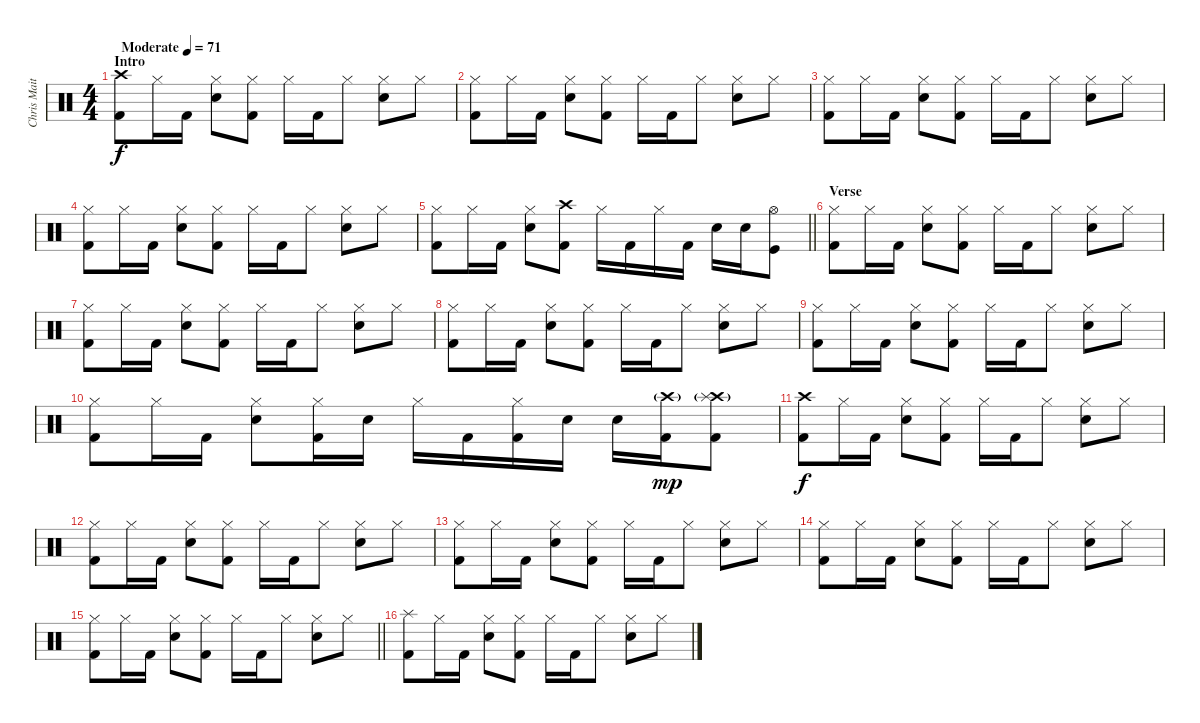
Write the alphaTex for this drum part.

\track ("Chris Maitland" "Chris Mait") {instrument percussion}
\staff {score}
\articulation defaults
\ts (4 4)
\section ("" "Intro")
\tempo (71 "Moderate")
\clef neutral
\ks c
("Crash high (hit)" "Kick (hit) 2").8{dy f} "Hi-Hat (closed)".16 "Kick (hit) 2".16 ("Hi-Hat (closed)" "Snare (hit) 2").8 ("Hi-Hat (closed)" "Kick (hit) 2").8 "Hi-Hat (closed)".16 "Kick (hit) 2".16 "Hi-Hat (closed)".8 ("Hi-Hat (closed)" "Snare (hit) 2").8 "Hi-Hat (closed)".8 |
("Hi-Hat (closed)" "Kick (hit) 2").8 "Hi-Hat (closed)".16 "Kick (hit) 2".16 ("Hi-Hat (closed)" "Snare (hit) 2").8 ("Hi-Hat (closed)" "Kick (hit) 2").8 "Hi-Hat (closed)".16 "Kick (hit) 2".16 "Hi-Hat (closed)".8 ("Hi-Hat (closed)" "Snare (hit) 2").8 "Hi-Hat (closed)".8 |
("Hi-Hat (closed)" "Kick (hit) 2").8 "Hi-Hat (closed)".16 "Kick (hit) 2".16 ("Hi-Hat (closed)" "Snare (hit) 2").8 ("Hi-Hat (closed)" "Kick (hit) 2").8 "Hi-Hat (closed)".16 "Kick (hit) 2".16 "Hi-Hat (closed)".8 ("Hi-Hat (closed)" "Snare (hit) 2").8 "Hi-Hat (closed)".8 |
("Hi-Hat (closed)" "Kick (hit) 2").8 "Hi-Hat (closed)".16 "Kick (hit) 2".16 ("Hi-Hat (closed)" "Snare (hit) 2").8 ("Hi-Hat (closed)" "Kick (hit) 2").8 "Hi-Hat (closed)".16 "Kick (hit) 2".16 "Hi-Hat (closed)".8 ("Hi-Hat (closed)" "Snare (hit) 2").8 "Hi-Hat (closed)".8 |
\barLineRight lightlight
("Hi-Hat (closed)" "Kick (hit) 2").8 "Hi-Hat (closed)".16 "Kick (hit) 2".16 ("Hi-Hat (closed)" "Snare (hit) 2").8 ("Crash high (hit)" "Kick (hit) 2").8 "Hi-Hat (closed)".16 "Kick (hit) 2".16 "Hi-Hat (closed)".16 "Kick (hit) 2".16 "Snare (hit) 2".16 "Snare (hit) 2".16 ("Hi-Hat (open)" "Kick (hit)").8 |
\section ("" "Verse")
("Hi-Hat (closed)" "Kick (hit) 2").8 "Hi-Hat (closed)".16 "Kick (hit) 2".16 ("Hi-Hat (closed)" "Snare (hit) 2").8 ("Hi-Hat (closed)" "Kick (hit) 2").8 "Hi-Hat (closed)".16 "Kick (hit) 2".16 "Hi-Hat (closed)".8 ("Hi-Hat (closed)" "Snare (hit) 2").8 "Hi-Hat (closed)".8 |
("Hi-Hat (closed)" "Kick (hit) 2").8 "Hi-Hat (closed)".16 "Kick (hit) 2".16 ("Hi-Hat (closed)" "Snare (hit) 2").8 ("Hi-Hat (closed)" "Kick (hit) 2").8 "Hi-Hat (closed)".16 "Kick (hit) 2".16 "Hi-Hat (closed)".8 ("Hi-Hat (closed)" "Snare (hit) 2").8 "Hi-Hat (closed)".8 |
("Hi-Hat (closed)" "Kick (hit) 2").8 "Hi-Hat (closed)".16 "Kick (hit) 2".16 ("Hi-Hat (closed)" "Snare (hit) 2").8 ("Hi-Hat (closed)" "Kick (hit) 2").8 "Hi-Hat (closed)".16 "Kick (hit) 2".16 "Hi-Hat (closed)".8 ("Hi-Hat (closed)" "Snare (hit) 2").8 "Hi-Hat (closed)".8 |
("Hi-Hat (closed)" "Kick (hit) 2").8 "Hi-Hat (closed)".16 "Kick (hit) 2".16 ("Hi-Hat (closed)" "Snare (hit) 2").8 ("Hi-Hat (closed)" "Kick (hit) 2").8 "Hi-Hat (closed)".16 "Kick (hit) 2".16 "Hi-Hat (closed)".8 ("Hi-Hat (closed)" "Snare (hit) 2").8 "Hi-Hat (closed)".8 |
("Hi-Hat (closed)" "Kick (hit) 2").8 "Hi-Hat (closed)".16 "Kick (hit) 2".16 ("Hi-Hat (closed)" "Snare (hit) 2").8 ("Hi-Hat (closed)" "Kick (hit) 2").16 "Snare (hit) 2".16 "Hi-Hat (closed)".16 "Kick (hit) 2".16 ("Hi-Hat (closed)" "Kick (hit) 2").16 "Snare (hit) 2".16 "Snare (hit) 2".16 ("Crash high (hit)"{g} "Kick (hit) 2").16{dy mp} ("Crash high (hit)"{g} "Splash (hit)" "Kick (hit) 2").8 |
("Crash high (hit)" "Kick (hit) 2").8{dy f} "Hi-Hat (closed)".16 "Kick (hit) 2".16 ("Hi-Hat (closed)" "Snare (hit) 2").8 ("Hi-Hat (closed)" "Kick (hit) 2").8 "Hi-Hat (closed)".16 "Kick (hit) 2".16 "Hi-Hat (closed)".8 ("Hi-Hat (closed)" "Snare (hit) 2").8 "Hi-Hat (closed)".8 |
("Hi-Hat (closed)" "Kick (hit) 2").8 "Hi-Hat (closed)".16 "Kick (hit) 2".16 ("Hi-Hat (closed)" "Snare (hit) 2").8 ("Hi-Hat (closed)" "Kick (hit) 2").8 "Hi-Hat (closed)".16 "Kick (hit) 2".16 "Hi-Hat (closed)".8 ("Hi-Hat (closed)" "Snare (hit) 2").8 "Hi-Hat (closed)".8 |
("Hi-Hat (closed)" "Kick (hit) 2").8 "Hi-Hat (closed)".16 "Kick (hit) 2".16 ("Hi-Hat (closed)" "Snare (hit) 2").8 ("Hi-Hat (closed)" "Kick (hit) 2").8 "Hi-Hat (closed)".16 "Kick (hit) 2".16 "Hi-Hat (closed)".8 ("Hi-Hat (closed)" "Snare (hit) 2").8 "Hi-Hat (closed)".8 |
("Hi-Hat (closed)" "Kick (hit) 2").8 "Hi-Hat (closed)".16 "Kick (hit) 2".16 ("Hi-Hat (closed)" "Snare (hit) 2").8 ("Hi-Hat (closed)" "Kick (hit) 2").8 "Hi-Hat (closed)".16 "Kick (hit) 2".16 "Hi-Hat (closed)".8 ("Hi-Hat (closed)" "Snare (hit) 2").8 "Hi-Hat (closed)".8 |
\barLineRight lightlight
("Hi-Hat (closed)" "Kick (hit) 2").8 "Hi-Hat (closed)".16 "Kick (hit) 2".16 ("Hi-Hat (closed)" "Snare (hit) 2").8 ("Hi-Hat (closed)" "Kick (hit) 2").8 "Hi-Hat (closed)".16 "Kick (hit) 2".16 "Hi-Hat (closed)".8 ("Hi-Hat (closed)" "Snare (hit) 2").8 "Hi-Hat (closed)".8 |
("Splash (hit)" "Kick (hit) 2").8 "Hi-Hat (closed)".16 "Kick (hit) 2".16 ("Hi-Hat (closed)" "Snare (hit) 2").8 ("Hi-Hat (closed)" "Kick (hit) 2").8 "Hi-Hat (closed)".16 "Kick (hit) 2".16 "Hi-Hat (closed)".8 ("Hi-Hat (closed)" "Snare (hit) 2").8 "Hi-Hat (closed)".8
